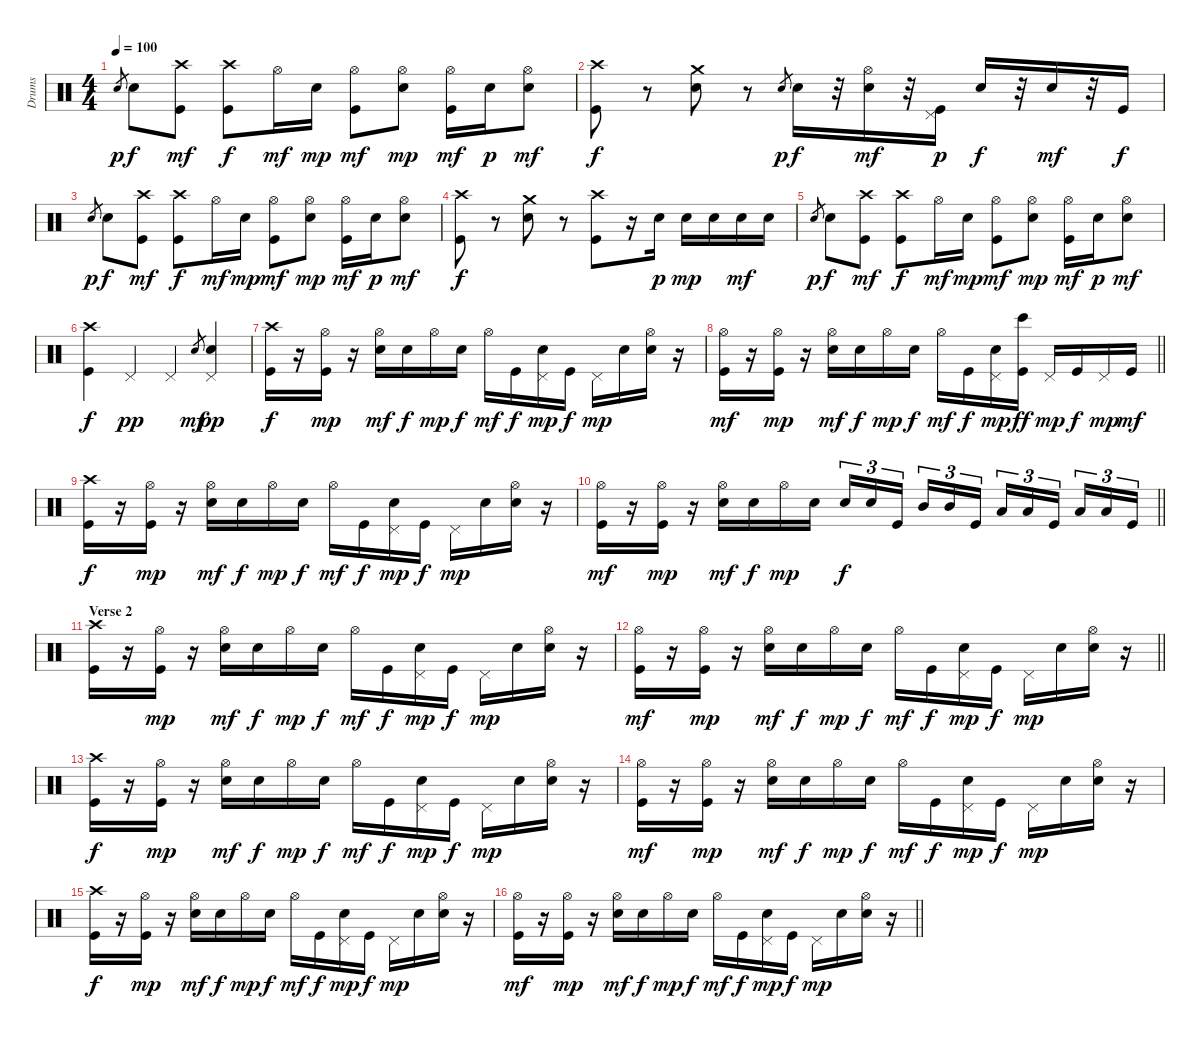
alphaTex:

\track ("Drums" "Drums") {instrument percussion}
\staff {score}
\articulation defaults
\ts (4 4)
\tempo 100
\clef neutral
\ks c "Snare (hit) 2".8{gr dy p} "Snare (hit) 2".8{dy f}
("Crash high (hit)" "Kick (hit)").8{dy mf} ("Crash high (hit)" "Kick (hit)").8{dy f} "Hi-Hat (open)".16{dy mf} "Snare (hit) 2".16{dy mp} ("Hi-Hat (open)" "Kick (hit)").8{dy mf} ("Hi-Hat (open)" "Snare (hit) 2").8{dy mp} ("Hi-Hat (open)" "Kick (hit)").16{dy mf} "Snare (hit) 2".16{dy p} ("Hi-Hat (open)" "Snare (hit) 2").8{dy mf} |
("Crash high (hit)" "Kick (hit)").8{dy f} r.8 ("Crash medium (hit)" "Snare (hit) 2").8 r.8 "Snare (hit) 2".8{gr dy p} "Snare (hit) 2".16{dy f} r.32 ("Hi-Hat (open)" "Snare (hit) 2").16{dy mf} r.32 ("Pedal Hi-Hat (hit)" "Kick (hit)").16{dy p} "Snare (hit) 2".16{dy f} r.32 "Snare (hit) 2".16{dy mf} r.32 "Kick (hit)".16{dy f} |
"Snare (hit) 2".8{gr dy p} "Snare (hit) 2".8{dy f} ("Crash high (hit)" "Kick (hit)").8{dy mf} ("Crash high (hit)" "Kick (hit)").8{dy f} "Hi-Hat (open)".16{dy mf} "Snare (hit) 2".16{dy mp} ("Hi-Hat (open)" "Kick (hit)").8{dy mf} ("Hi-Hat (open)" "Snare (hit) 2").8{dy mp} ("Hi-Hat (open)" "Kick (hit)").16{dy mf} "Snare (hit) 2".16{dy p} ("Hi-Hat (open)" "Snare (hit) 2").8{dy mf} |
("Crash high (hit)" "Kick (hit)").8{dy f} r.8 ("Crash medium (hit)" "Snare (hit) 2").8 r.8 ("Crash high (hit)" "Kick (hit)").8 r.16 "Snare (hit) 2".16{dy p} "Snare (hit) 2".16{dy mp} "Snare (hit) 2".16 "Snare (hit) 2".16{dy mf} "Snare (hit) 2".16 |
"Snare (hit) 2".8{gr dy p} "Snare (hit) 2".8{dy f} ("Crash high (hit)" "Kick (hit)").8{dy mf} ("Crash high (hit)" "Kick (hit)").8{dy f} "Hi-Hat (open)".16{dy mf} "Snare (hit) 2".16{dy mp} ("Hi-Hat (open)" "Kick (hit)").8{dy mf} ("Hi-Hat (open)" "Snare (hit) 2").8{dy mp} ("Hi-Hat (open)" "Kick (hit)").16{dy mf} "Snare (hit) 2".16{dy p} ("Hi-Hat (open)" "Snare (hit) 2").8{dy mf} |
("Crash high (hit)" "Kick (hit)").4{dy f} "Pedal Hi-Hat (hit)".4{dy pp} "Pedal Hi-Hat (hit)".4 "Snare (hit) 2".8{gr dy mf} ("Pedal Hi-Hat (hit)" "Snare (hit) 2").4{dy pp} |
("Crash high (hit)" "Kick (hit)").16{dy f} r.16 ("Hi-Hat (open)" "Kick (hit)").16{dy mp} r.16 ("Hi-Hat (open)" "Snare (hit) 2").16{dy mf} "Snare (hit) 2".16{dy f} "Hi-Hat (open)".16{dy mp} "Snare (hit) 2".16{dy f} "Hi-Hat (open)".16{dy mf} "Kick (hit)".16{dy f} ("Pedal Hi-Hat (hit)" "Snare (hit) 2").16{dy mp} "Kick (hit)".16{dy f} "Pedal Hi-Hat (hit)".16{dy mp} "Snare (hit) 2".16 ("Hi-Hat (open)" "Snare (hit) 2").16 r.16 |
\barLineRight lightlight
("Hi-Hat (open)" "Kick (hit)").16{dy mf} r.16 ("Hi-Hat (open)" "Kick (hit)").16{dy mp} r.16 ("Hi-Hat (open)" "Snare (hit) 2").16{dy mf} "Snare (hit) 2".16{dy f} "Hi-Hat (open)".16{dy mp} "Snare (hit) 2".16{dy f} "Hi-Hat (open)".16{dy mf} "Kick (hit)".16{dy f} ("Pedal Hi-Hat (hit)" "Snare (hit) 2").16{dy mp} ("Bongo High (hit)" "Kick (hit)").16{dy ff} "Pedal Hi-Hat (hit)".16{dy mp} "Kick (hit)".16{dy f} "Pedal Hi-Hat (hit)".16{dy mp} "Kick (hit)".16{dy mf} |
("Crash high (hit)" "Kick (hit)").16{dy f} r.16 ("Hi-Hat (open)" "Kick (hit)").16{dy mp} r.16 ("Hi-Hat (open)" "Snare (hit) 2").16{dy mf} "Snare (hit) 2".16{dy f} "Hi-Hat (open)".16{dy mp} "Snare (hit) 2".16{dy f} "Hi-Hat (open)".16{dy mf} "Kick (hit)".16{dy f} ("Pedal Hi-Hat (hit)" "Snare (hit) 2").16{dy mp} "Kick (hit)".16{dy f} "Pedal Hi-Hat (hit)".16{dy mp} "Snare (hit) 2".16 ("Hi-Hat (open)" "Snare (hit) 2").16 r.16 |
\barLineRight lightlight
("Hi-Hat (open)" "Kick (hit)").16{dy mf} r.16 ("Hi-Hat (open)" "Kick (hit)").16{dy mp} r.16 ("Hi-Hat (open)" "Snare (hit) 2").16{dy mf} "Snare (hit) 2".16{dy f} "Hi-Hat (open)".16{dy mp} "Snare (hit) 2".16 "Snare (hit) 2".16{tu (3 2) dy f} "Snare (hit) 2".16{tu (3 2)} "Kick (hit)".16{tu (3 2) beam splitsecondary} "Mid Tom (hit)".16{tu (3 2)} "Mid Tom (hit)".16{tu (3 2)} "Kick (hit)".16{tu (3 2)} "Low Tom (hit)".16{tu (3 2)} "Low Tom (hit)".16{tu (3 2)} "Kick (hit)".16{tu (3 2) beam splitsecondary} "Low Tom (hit)".16{tu (3 2)} "Low Tom (hit)".16{tu (3 2)} "Kick (hit)".16{tu (3 2)} |
\section ("" "Verse 2")
("Crash high (hit)" "Kick (hit)").16 r.16 ("Hi-Hat (open)" "Kick (hit)").16{dy mp} r.16 ("Hi-Hat (open)" "Snare (hit) 2").16{dy mf} "Snare (hit) 2".16{dy f} "Hi-Hat (open)".16{dy mp} "Snare (hit) 2".16{dy f} "Hi-Hat (open)".16{dy mf} "Kick (hit)".16{dy f} ("Pedal Hi-Hat (hit)" "Snare (hit) 2").16{dy mp} "Kick (hit)".16{dy f} "Pedal Hi-Hat (hit)".16{dy mp} "Snare (hit) 2".16 ("Hi-Hat (open)" "Snare (hit) 2").16 r.16 |
\barLineRight lightlight
("Hi-Hat (open)" "Kick (hit)").16{dy mf} r.16 ("Hi-Hat (open)" "Kick (hit)").16{dy mp} r.16 ("Hi-Hat (open)" "Snare (hit) 2").16{dy mf} "Snare (hit) 2".16{dy f} "Hi-Hat (open)".16{dy mp} "Snare (hit) 2".16{dy f} "Hi-Hat (open)".16{dy mf} "Kick (hit)".16{dy f} ("Pedal Hi-Hat (hit)" "Snare (hit) 2").16{dy mp} "Kick (hit)".16{dy f} "Pedal Hi-Hat (hit)".16{dy mp} "Snare (hit) 2".16 ("Hi-Hat (open)" "Snare (hit) 2").16 r.16 |
("Crash high (hit)" "Kick (hit)").16{dy f} r.16 ("Hi-Hat (open)" "Kick (hit)").16{dy mp} r.16 ("Hi-Hat (open)" "Snare (hit) 2").16{dy mf} "Snare (hit) 2".16{dy f} "Hi-Hat (open)".16{dy mp} "Snare (hit) 2".16{dy f} "Hi-Hat (open)".16{dy mf} "Kick (hit)".16{dy f} ("Pedal Hi-Hat (hit)" "Snare (hit) 2").16{dy mp} "Kick (hit)".16{dy f} "Pedal Hi-Hat (hit)".16{dy mp} "Snare (hit) 2".16 ("Hi-Hat (open)" "Snare (hit) 2").16 r.16 |
("Hi-Hat (open)" "Kick (hit)").16{dy mf} r.16 ("Hi-Hat (open)" "Kick (hit)").16{dy mp} r.16 ("Hi-Hat (open)" "Snare (hit) 2").16{dy mf} "Snare (hit) 2".16{dy f} "Hi-Hat (open)".16{dy mp} "Snare (hit) 2".16{dy f} "Hi-Hat (open)".16{dy mf} "Kick (hit)".16{dy f} ("Pedal Hi-Hat (hit)" "Snare (hit) 2").16{dy mp} "Kick (hit)".16{dy f} "Pedal Hi-Hat (hit)".16{dy mp} "Snare (hit) 2".16 ("Hi-Hat (open)" "Snare (hit) 2").16 r.16 |
("Crash high (hit)" "Kick (hit)").16{dy f} r.16 ("Hi-Hat (open)" "Kick (hit)").16{dy mp} r.16 ("Hi-Hat (open)" "Snare (hit) 2").16{dy mf} "Snare (hit) 2".16{dy f} "Hi-Hat (open)".16{dy mp} "Snare (hit) 2".16{dy f} "Hi-Hat (open)".16{dy mf} "Kick (hit)".16{dy f} ("Pedal Hi-Hat (hit)" "Snare (hit) 2").16{dy mp} "Kick (hit)".16{dy f} "Pedal Hi-Hat (hit)".16{dy mp} "Snare (hit) 2".16 ("Hi-Hat (open)" "Snare (hit) 2").16 r.16 |
\barLineRight lightlight
("Hi-Hat (open)" "Kick (hit)").16{dy mf} r.16 ("Hi-Hat (open)" "Kick (hit)").16{dy mp} r.16 ("Hi-Hat (open)" "Snare (hit) 2").16{dy mf} "Snare (hit) 2".16{dy f} "Hi-Hat (open)".16{dy mp} "Snare (hit) 2".16{dy f} "Hi-Hat (open)".16{dy mf} "Kick (hit)".16{dy f} ("Pedal Hi-Hat (hit)" "Snare (hit) 2").16{dy mp} "Kick (hit)".16{dy f} "Pedal Hi-Hat (hit)".16{dy mp} "Snare (hit) 2".16 ("Hi-Hat (open)" "Snare (hit) 2").16 r.16
